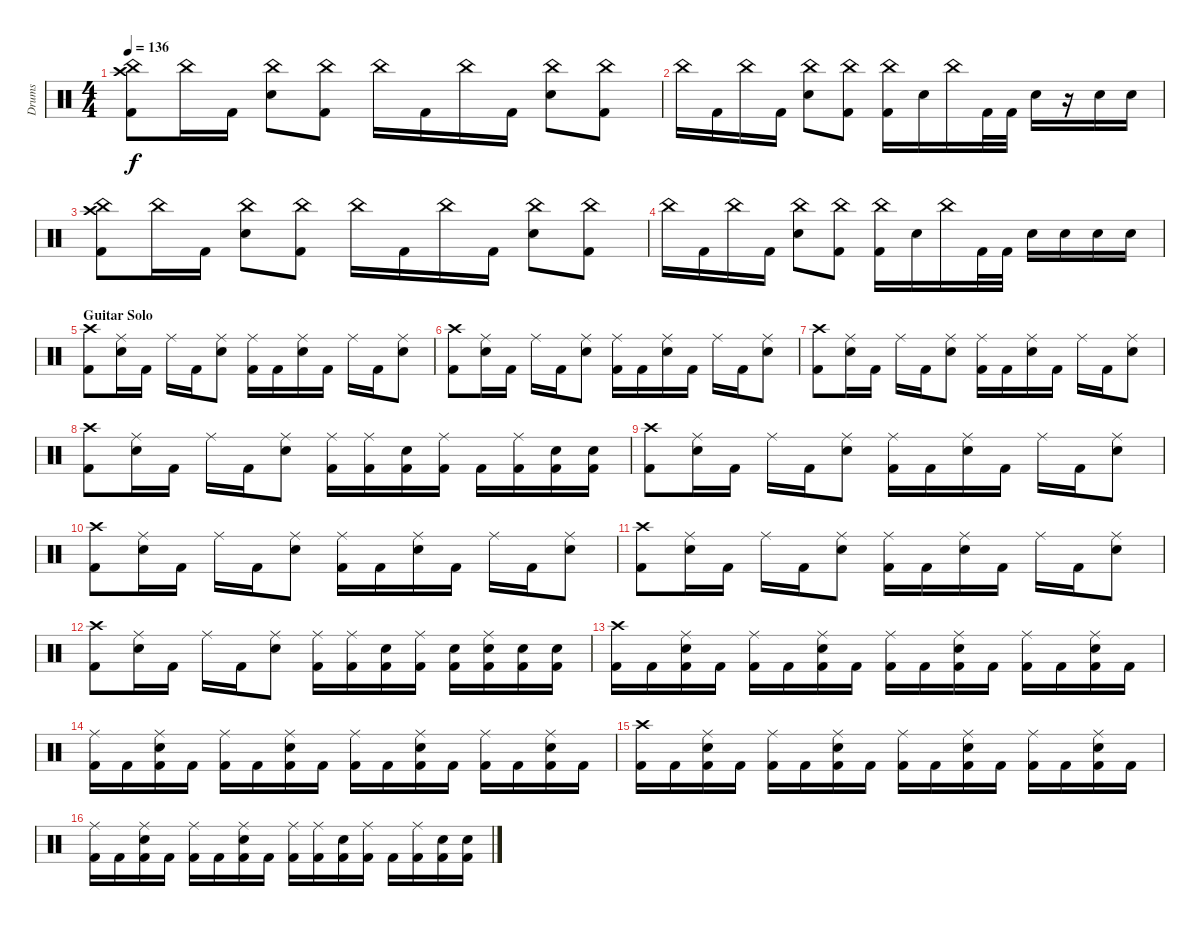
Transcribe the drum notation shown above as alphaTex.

\track ("Drums" "Drums") {instrument percussion}
\staff {score}
\articulation defaults
\ts (4 4)
\tempo 136
\clef neutral
\ks c
("China (hit)" "Crash high (hit)" "Kick (hit) 2").8{dy f} "China (hit)".16 "Kick (hit) 2".16 ("China (hit)" "Snare (hit) 2").8 ("China (hit)" "Kick (hit) 2").8 "China (hit)".16 "Kick (hit) 2".16 "China (hit)".16 "Kick (hit) 2".16 ("China (hit)" "Snare (hit) 2").8 ("China (hit)" "Kick (hit) 2").8 |
"China (hit)".16 "Kick (hit) 2".16 "China (hit)".16 "Kick (hit) 2".16 ("China (hit)" "Snare (hit) 2").8 ("China (hit)" "Kick (hit) 2").8 ("China (hit)" "Kick (hit) 2").16 "Snare (hit) 2".16 "China (hit)".16 "Kick (hit) 2".32 "Kick (hit) 2".32 "Snare (hit) 2".16 r.16 "Snare (hit) 2".16 "Snare (hit) 2".16 |
("China (hit)" "Crash high (hit)" "Kick (hit) 2").8 "China (hit)".16 "Kick (hit) 2".16 ("China (hit)" "Snare (hit) 2").8 ("China (hit)" "Kick (hit) 2").8 "China (hit)".16 "Kick (hit) 2".16 "China (hit)".16 "Kick (hit) 2".16 ("China (hit)" "Snare (hit) 2").8 ("China (hit)" "Kick (hit) 2").8 |
"China (hit)".16 "Kick (hit) 2".16 "China (hit)".16 "Kick (hit) 2".16 ("China (hit)" "Snare (hit) 2").8 ("China (hit)" "Kick (hit) 2").8 ("China (hit)" "Kick (hit) 2").16 "Snare (hit) 2".16 "China (hit)".16 "Kick (hit) 2".32 "Kick (hit) 2".32 "Snare (hit) 2".16 "Snare (hit) 2".16 "Snare (hit) 2".16 "Snare (hit) 2".16 |
\section ("" "Guitar Solo")
("Crash high (hit)" "Kick (hit) 2").8 ("Ride (middle)" "Snare (hit) 2").16 "Kick (hit) 2".16 "Ride (middle)".16 "Kick (hit) 2".16 ("Ride (middle)" "Snare (hit) 2").8 ("Ride (middle)" "Kick (hit) 2").16 "Kick (hit) 2".16 ("Ride (middle)" "Snare (hit) 2").16 "Kick (hit) 2".16 "Ride (middle)".16 "Kick (hit) 2".16 ("Ride (middle)" "Snare (hit) 2").8 |
("Crash high (hit)" "Kick (hit) 2").8 ("Ride (middle)" "Snare (hit) 2").16 "Kick (hit) 2".16 "Ride (middle)".16 "Kick (hit) 2".16 ("Ride (middle)" "Snare (hit) 2").8 ("Ride (middle)" "Kick (hit) 2").16 "Kick (hit) 2".16 ("Ride (middle)" "Snare (hit) 2").16 "Kick (hit) 2".16 "Ride (middle)".16 "Kick (hit) 2".16 ("Ride (middle)" "Snare (hit) 2").8 |
("Crash high (hit)" "Kick (hit) 2").8 ("Ride (middle)" "Snare (hit) 2").16 "Kick (hit) 2".16 "Ride (middle)".16 "Kick (hit) 2".16 ("Ride (middle)" "Snare (hit) 2").8 ("Ride (middle)" "Kick (hit) 2").16 "Kick (hit) 2".16 ("Ride (middle)" "Snare (hit) 2").16 "Kick (hit) 2".16 "Ride (middle)".16 "Kick (hit) 2".16 ("Ride (middle)" "Snare (hit) 2").8 |
("Crash high (hit)" "Kick (hit) 2").8 ("Ride (middle)" "Snare (hit) 2").16 "Kick (hit) 2".16 "Ride (middle)".16 "Kick (hit) 2".16 ("Ride (middle)" "Snare (hit) 2").8 ("Ride (middle)" "Kick (hit) 2").16 ("Ride (middle)" "Kick (hit) 2").16 ("Snare (hit) 2" "Kick (hit) 2").16 ("Ride (middle)" "Kick (hit) 2").16 "Kick (hit) 2".16 ("Ride (middle)" "Kick (hit) 2").16 ("Snare (hit) 2" "Kick (hit) 2").16 ("Snare (hit) 2" "Kick (hit) 2").16 |
("Crash high (hit)" "Kick (hit) 2").8 ("Ride (middle)" "Snare (hit) 2").16 "Kick (hit) 2".16 "Ride (middle)".16 "Kick (hit) 2".16 ("Ride (middle)" "Snare (hit) 2").8 ("Ride (middle)" "Kick (hit) 2").16 "Kick (hit) 2".16 ("Ride (middle)" "Snare (hit) 2").16 "Kick (hit) 2".16 "Ride (middle)".16 "Kick (hit) 2".16 ("Ride (middle)" "Snare (hit) 2").8 |
("Crash high (hit)" "Kick (hit) 2").8 ("Ride (middle)" "Snare (hit) 2").16 "Kick (hit) 2".16 "Ride (middle)".16 "Kick (hit) 2".16 ("Ride (middle)" "Snare (hit) 2").8 ("Ride (middle)" "Kick (hit) 2").16 "Kick (hit) 2".16 ("Ride (middle)" "Snare (hit) 2").16 "Kick (hit) 2".16 "Ride (middle)".16 "Kick (hit) 2".16 ("Ride (middle)" "Snare (hit) 2").8 |
("Crash high (hit)" "Kick (hit) 2").8 ("Ride (middle)" "Snare (hit) 2").16 "Kick (hit) 2".16 "Ride (middle)".16 "Kick (hit) 2".16 ("Ride (middle)" "Snare (hit) 2").8 ("Ride (middle)" "Kick (hit) 2").16 "Kick (hit) 2".16 ("Ride (middle)" "Snare (hit) 2").16 "Kick (hit) 2".16 "Ride (middle)".16 "Kick (hit) 2".16 ("Ride (middle)" "Snare (hit) 2").8 |
("Crash high (hit)" "Kick (hit) 2").8 ("Ride (middle)" "Snare (hit) 2").16 "Kick (hit) 2".16 "Ride (middle)".16 "Kick (hit) 2".16 ("Ride (middle)" "Snare (hit) 2").8 ("Ride (middle)" "Kick (hit) 2").16 ("Ride (middle)" "Kick (hit) 2").16 ("Snare (hit) 2" "Kick (hit) 2").16 ("Ride (middle)" "Kick (hit) 2").16 ("Snare (hit) 2" "Kick (hit) 2").16 ("Ride (middle)" "Snare (hit) 2" "Kick (hit) 2").16 ("Snare (hit) 2" "Kick (hit) 2").16 ("Snare (hit) 2" "Kick (hit) 2").16 |
("Crash high (hit)" "Kick (hit) 2").16 "Kick (hit) 2".16 ("Ride (middle)" "Snare (hit) 2" "Kick (hit) 2").16 "Kick (hit) 2".16 ("Ride (middle)" "Kick (hit) 2").16 "Kick (hit) 2".16 ("Ride (middle)" "Snare (hit) 2" "Kick (hit) 2").16 "Kick (hit) 2".16 ("Ride (middle)" "Kick (hit) 2").16 "Kick (hit) 2".16 ("Ride (middle)" "Snare (hit) 2" "Kick (hit) 2").16 "Kick (hit) 2".16 ("Ride (middle)" "Kick (hit) 2").16 "Kick (hit) 2".16 ("Ride (middle)" "Snare (hit) 2" "Kick (hit) 2").16 "Kick (hit) 2".16 |
("Ride (middle)" "Kick (hit) 2").16 "Kick (hit) 2".16 ("Ride (middle)" "Snare (hit) 2" "Kick (hit) 2").16 "Kick (hit) 2".16 ("Ride (middle)" "Kick (hit) 2").16 "Kick (hit) 2".16 ("Ride (middle)" "Snare (hit) 2" "Kick (hit) 2").16 "Kick (hit) 2".16 ("Ride (middle)" "Kick (hit) 2").16 "Kick (hit) 2".16 ("Ride (middle)" "Snare (hit) 2" "Kick (hit) 2").16 "Kick (hit) 2".16 ("Ride (middle)" "Kick (hit) 2").16 "Kick (hit) 2".16 ("Ride (middle)" "Snare (hit) 2" "Kick (hit) 2").16 "Kick (hit) 2".16 |
("Crash high (hit)" "Kick (hit) 2").16 "Kick (hit) 2".16 ("Ride (middle)" "Snare (hit) 2" "Kick (hit) 2").16 "Kick (hit) 2".16 ("Ride (middle)" "Kick (hit) 2").16 "Kick (hit) 2".16 ("Ride (middle)" "Snare (hit) 2" "Kick (hit) 2").16 "Kick (hit) 2".16 ("Ride (middle)" "Kick (hit) 2").16 "Kick (hit) 2".16 ("Ride (middle)" "Snare (hit) 2" "Kick (hit) 2").16 "Kick (hit) 2".16 ("Ride (middle)" "Kick (hit) 2").16 "Kick (hit) 2".16 ("Ride (middle)" "Snare (hit) 2" "Kick (hit) 2").16 "Kick (hit) 2".16 |
("Ride (middle)" "Kick (hit) 2").16 "Kick (hit) 2".16 ("Ride (middle)" "Snare (hit) 2" "Kick (hit) 2").16 "Kick (hit) 2".16 ("Ride (middle)" "Kick (hit) 2").16 "Kick (hit) 2".16 ("Ride (middle)" "Snare (hit) 2" "Kick (hit) 2").16 "Kick (hit) 2".16 ("Ride (middle)" "Kick (hit) 2").16 ("Ride (middle)" "Kick (hit) 2").16 ("Snare (hit) 2" "Kick (hit) 2").16 ("Ride (middle)" "Kick (hit) 2").16 "Kick (hit) 2".16 ("Ride (middle)" "Kick (hit) 2").16 ("Snare (hit) 2" "Kick (hit) 2").16 ("Snare (hit) 2" "Kick (hit) 2").16
